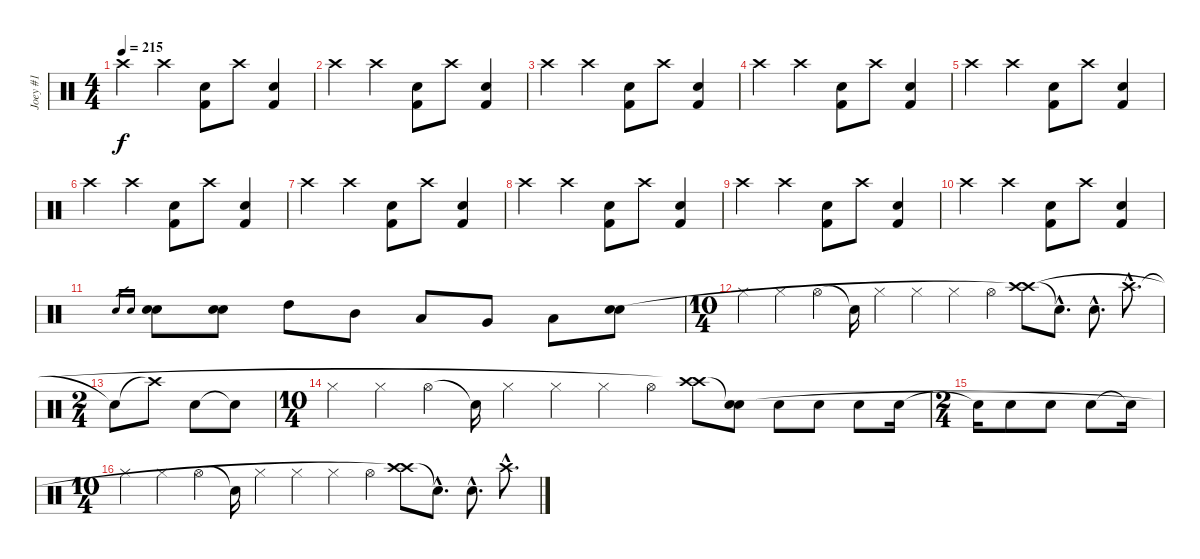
\track ("Joey #1" "Joey #1") {instrument percussion}
\staff {score}
\articulation defaults
\ts (4 4)
\tempo 215
\clef neutral
\ks c "Crash high (hit)".4{dy f} "Crash high (hit)".4
("Kick (hit) 2" "Snare (hit) 2").8 "Crash high (hit)".8 ("Kick (hit) 2" "Snare (hit) 2").4 |
"Crash high (hit)".4 "Crash high (hit)".4 ("Kick (hit) 2" "Snare (hit) 2").8 "Crash high (hit)".8 ("Kick (hit) 2" "Snare (hit) 2").4 |
"Crash high (hit)".4 "Crash high (hit)".4 ("Kick (hit) 2" "Snare (hit) 2").8 "Crash high (hit)".8 ("Kick (hit) 2" "Snare (hit) 2").4 |
"Crash high (hit)".4 "Crash high (hit)".4 ("Kick (hit) 2" "Snare (hit) 2").8 "Crash high (hit)".8 ("Kick (hit) 2" "Snare (hit) 2").4 |
"Crash high (hit)".4 "Crash high (hit)".4 ("Kick (hit) 2" "Snare (hit) 2").8 "Crash high (hit)".8 ("Kick (hit) 2" "Snare (hit) 2").4 |
"Crash high (hit)".4 "Crash high (hit)".4 ("Kick (hit) 2" "Snare (hit) 2").8 "Crash high (hit)".8 ("Kick (hit) 2" "Snare (hit) 2").4 |
"Crash high (hit)".4 "Crash high (hit)".4 ("Kick (hit) 2" "Snare (hit) 2").8 "Crash high (hit)".8 ("Kick (hit) 2" "Snare (hit) 2").4 |
"Crash high (hit)".4 "Crash high (hit)".4 ("Kick (hit) 2" "Snare (hit) 2").8 "Crash high (hit)".8 ("Kick (hit) 2" "Snare (hit) 2").4 |
"Crash high (hit)".4 "Crash high (hit)".4 ("Kick (hit) 2" "Snare (hit) 2").8 "Crash high (hit)".8 ("Kick (hit) 2" "Snare (hit) 2").4 |
"Crash high (hit)".4 "Crash high (hit)".4 ("Kick (hit) 2" "Snare (hit) 2").8 "Crash high (hit)".8 ("Kick (hit) 2" "Snare (hit) 2").4 |
"Snare (hit) 2"{sl}.16{gr} "Snare (hit) 2"{sl}.16{gr} ("Snare (hit) 2" "Snare (hit) 2").8 ("Snare (hit) 2" "Snare (hit) 2").8 "High Tom (hit)".8 "Mid Tom (hit)".8 "Low Tom (hit)".8 "Very Low Tom (hit)".8 "Low Floor Tom (hit)".8 ("Snare (hit) 2" "Snare (hit) 2").8 |
\ts (10 4)
"Hi-Hat (closed)".4{volume 12} "Hi-Hat (closed)".4 "Hi-Hat (open)".4 "Snare (hit)"{t}.16 "Hi-Hat (closed)".4 "Hi-Hat (closed)".4 "Hi-Hat (closed)".4 "Hi-Hat (open)".4 ("Crash high (hit)" "Crash high (hit)"{t}).8 "Snare (hit)"{hac t}.8{d} "Snare (hit) 2"{hac}.8{d} "Crash high (hit)"{hac}.8{d} |
\ts (2 4)
"Snare (hit)"{t}.8 "Crash high (hit)"{t}.8 "Snare (hit) 2".8 "Snare (hit)"{t}.8 |
\ts (10 4)
"Hi-Hat (closed)".4{volume 12} "Hi-Hat (closed)".4 "Hi-Hat (open)".4 "Snare (hit)"{t}.16 "Hi-Hat (closed)".4 "Hi-Hat (closed)".4 "Hi-Hat (closed)".4 "Hi-Hat (open)".4 ("Crash high (hit)" "Crash high (hit)"{t}).8 ("Snare (hit)"{t} "Snare (hit) 2").8 "Snare (hit) 2".8 "Snare (hit) 2".8 "Snare (hit) 2".8 "Snare (hit) 2".16 |
\ts (2 4)
"Snare (hit) 2"{t}.16 "Snare (hit) 2".8 "Snare (hit) 2".8 "Snare (hit) 2".8 "Snare (hit)"{t}.16 |
\ts (10 4)
"Hi-Hat (closed)".4{volume 12} "Hi-Hat (closed)".4 "Hi-Hat (open)".4 "Snare (hit)"{t}.16 "Hi-Hat (closed)".4 "Hi-Hat (closed)".4 "Hi-Hat (closed)".4 "Hi-Hat (open)".4 ("Crash high (hit)" "Crash high (hit)"{t}).8 "Snare (hit)"{hac t}.8{d} "Snare (hit) 2"{hac}.8{d} "Crash high (hit)"{hac}.8{d}
